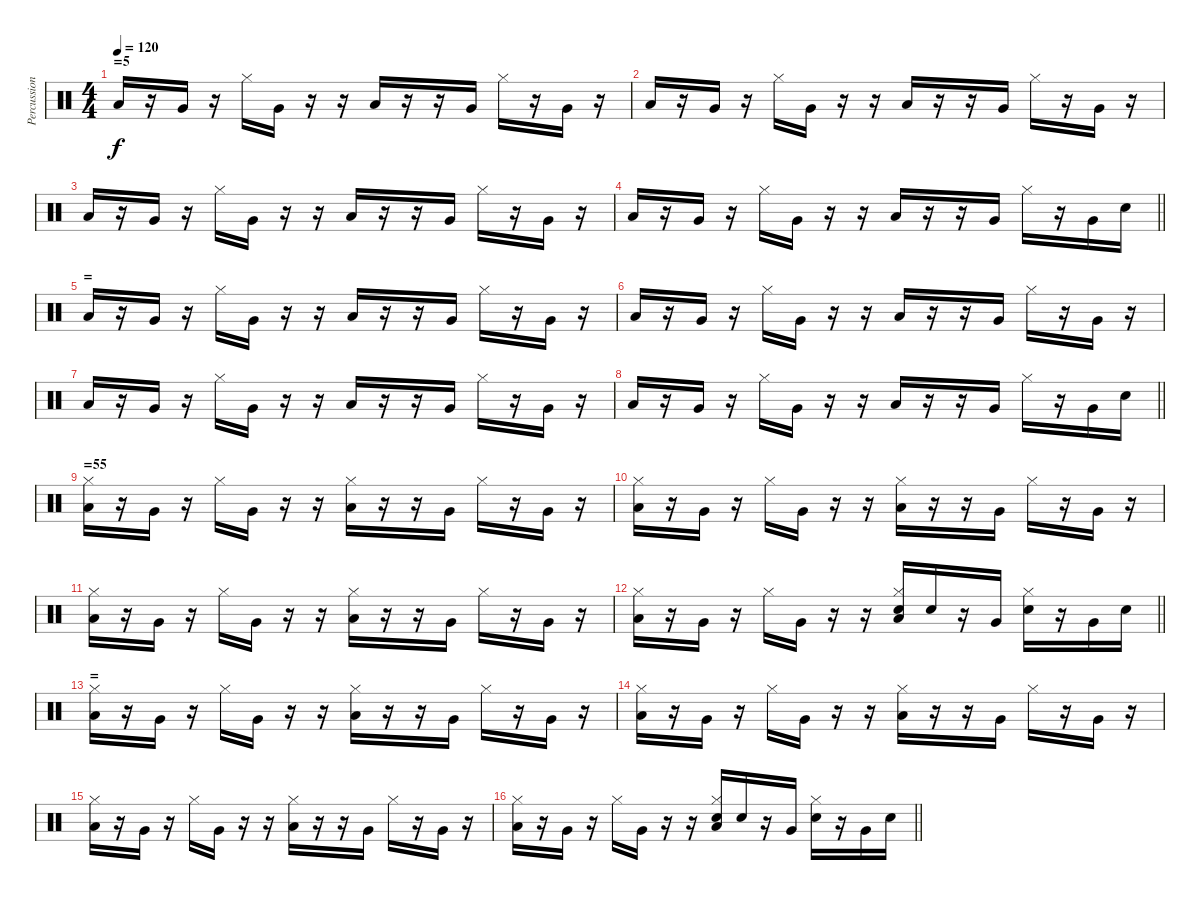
\track ("Percussion" "Percussion") {instrument percussion}
\staff {score}
\articulation defaults
\ts (4 4)
\section ("" "=5")
\tempo 120
\clef neutral
\ks c "Low Floor Tom (hit)".16{dy f}
r.16 "Very Low Tom (hit)".16 r.16 "Hi-Hat (closed)".16 "Very Low Tom (hit)".16 r.16 r.16 "Low Floor Tom (hit)".16 r.16 r.16 "Very Low Tom (hit)".16 "Hi-Hat (closed)".16 r.16 "Very Low Tom (hit)".16 r.16 |
"Low Floor Tom (hit)".16 r.16 "Very Low Tom (hit)".16 r.16 "Hi-Hat (closed)".16 "Very Low Tom (hit)".16 r.16 r.16 "Low Floor Tom (hit)".16 r.16 r.16 "Very Low Tom (hit)".16 "Hi-Hat (closed)".16 r.16 "Very Low Tom (hit)".16 r.16 |
"Low Floor Tom (hit)".16 r.16 "Very Low Tom (hit)".16 r.16 "Hi-Hat (closed)".16 "Very Low Tom (hit)".16 r.16 r.16 "Low Floor Tom (hit)".16 r.16 r.16 "Very Low Tom (hit)".16 "Hi-Hat (closed)".16 r.16 "Very Low Tom (hit)".16 r.16 |
\barLineRight lightlight "Low Floor Tom (hit)".16
r.16 "Very Low Tom (hit)".16 r.16 "Hi-Hat (closed)".16 "Very Low Tom (hit)".16 r.16 r.16 "Low Floor Tom (hit)".16 r.16 r.16 "Very Low Tom (hit)".16 "Hi-Hat (closed)".16 r.16 "Very Low Tom (hit)".16 "Electric Snare (hit)".16 |
\section ("" "=")
"Low Floor Tom (hit)".16 r.16 "Very Low Tom (hit)".16 r.16 "Hi-Hat (closed)".16 "Very Low Tom (hit)".16 r.16 r.16 "Low Floor Tom (hit)".16 r.16 r.16 "Very Low Tom (hit)".16 "Hi-Hat (closed)".16 r.16 "Very Low Tom (hit)".16 r.16 |
"Low Floor Tom (hit)".16 r.16 "Very Low Tom (hit)".16 r.16 "Hi-Hat (closed)".16 "Very Low Tom (hit)".16 r.16 r.16 "Low Floor Tom (hit)".16 r.16 r.16 "Very Low Tom (hit)".16 "Hi-Hat (closed)".16 r.16 "Very Low Tom (hit)".16 r.16 |
"Low Floor Tom (hit)".16 r.16 "Very Low Tom (hit)".16 r.16 "Hi-Hat (closed)".16 "Very Low Tom (hit)".16 r.16 r.16 "Low Floor Tom (hit)".16 r.16 r.16 "Very Low Tom (hit)".16 "Hi-Hat (closed)".16 r.16 "Very Low Tom (hit)".16 r.16 |
\barLineRight lightlight "Low Floor Tom (hit)".16
r.16 "Very Low Tom (hit)".16 r.16 "Hi-Hat (closed)".16 "Very Low Tom (hit)".16 r.16 r.16 "Low Floor Tom (hit)".16 r.16 r.16 "Very Low Tom (hit)".16 "Hi-Hat (closed)".16 r.16 "Very Low Tom (hit)".16 "Electric Snare (hit)".16 |
\section ("" "=55")
("Low Floor Tom (hit)" "Hi-Hat (closed)").16 r.16 "Very Low Tom (hit)".16 r.16 "Hi-Hat (closed)".16 "Very Low Tom (hit)".16 r.16 r.16 ("Low Floor Tom (hit)" "Hi-Hat (closed)").16 r.16 r.16 "Very Low Tom (hit)".16 "Hi-Hat (closed)".16 r.16 "Very Low Tom (hit)".16 r.16 |
("Low Floor Tom (hit)" "Hi-Hat (closed)").16 r.16 "Very Low Tom (hit)".16 r.16 "Hi-Hat (closed)".16 "Very Low Tom (hit)".16 r.16 r.16 ("Low Floor Tom (hit)" "Hi-Hat (closed)").16 r.16 r.16 "Very Low Tom (hit)".16 "Hi-Hat (closed)".16 r.16 "Very Low Tom (hit)".16 r.16 |
("Low Floor Tom (hit)" "Hi-Hat (closed)").16 r.16 "Very Low Tom (hit)".16 r.16 "Hi-Hat (closed)".16 "Very Low Tom (hit)".16 r.16 r.16 ("Low Floor Tom (hit)" "Hi-Hat (closed)").16 r.16 r.16 "Very Low Tom (hit)".16 "Hi-Hat (closed)".16 r.16 "Very Low Tom (hit)".16 r.16 |
\barLineRight lightlight
("Low Floor Tom (hit)" "Hi-Hat (closed)").16 r.16 "Very Low Tom (hit)".16 r.16 "Hi-Hat (closed)".16 "Very Low Tom (hit)".16 r.16 r.16 ("Low Floor Tom (hit)" "Hi-Hat (closed)" "Electric Snare (hit)").16 "Electric Snare (hit)".16 r.16 "Very Low Tom (hit)".16 ("Hi-Hat (closed)" "Electric Snare (hit)").16 r.16 "Very Low Tom (hit)".16 "Electric Snare (hit)".16 |
\section ("" "=")
("Low Floor Tom (hit)" "Hi-Hat (closed)").16 r.16 "Very Low Tom (hit)".16 r.16 "Hi-Hat (closed)".16 "Very Low Tom (hit)".16 r.16 r.16 ("Low Floor Tom (hit)" "Hi-Hat (closed)").16 r.16 r.16 "Very Low Tom (hit)".16 "Hi-Hat (closed)".16 r.16 "Very Low Tom (hit)".16 r.16 |
("Low Floor Tom (hit)" "Hi-Hat (closed)").16 r.16 "Very Low Tom (hit)".16 r.16 "Hi-Hat (closed)".16 "Very Low Tom (hit)".16 r.16 r.16 ("Low Floor Tom (hit)" "Hi-Hat (closed)").16 r.16 r.16 "Very Low Tom (hit)".16 "Hi-Hat (closed)".16 r.16 "Very Low Tom (hit)".16 r.16 |
("Low Floor Tom (hit)" "Hi-Hat (closed)").16 r.16 "Very Low Tom (hit)".16 r.16 "Hi-Hat (closed)".16 "Very Low Tom (hit)".16 r.16 r.16 ("Low Floor Tom (hit)" "Hi-Hat (closed)").16 r.16 r.16 "Very Low Tom (hit)".16 "Hi-Hat (closed)".16 r.16 "Very Low Tom (hit)".16 r.16 |
\barLineRight lightlight
("Low Floor Tom (hit)" "Hi-Hat (closed)").16 r.16 "Very Low Tom (hit)".16 r.16 "Hi-Hat (closed)".16 "Very Low Tom (hit)".16 r.16 r.16 ("Low Floor Tom (hit)" "Hi-Hat (closed)" "Electric Snare (hit)").16 "Electric Snare (hit)".16 r.16 "Very Low Tom (hit)".16 ("Hi-Hat (closed)" "Electric Snare (hit)").16 r.16 "Very Low Tom (hit)".16 "Electric Snare (hit)".16
